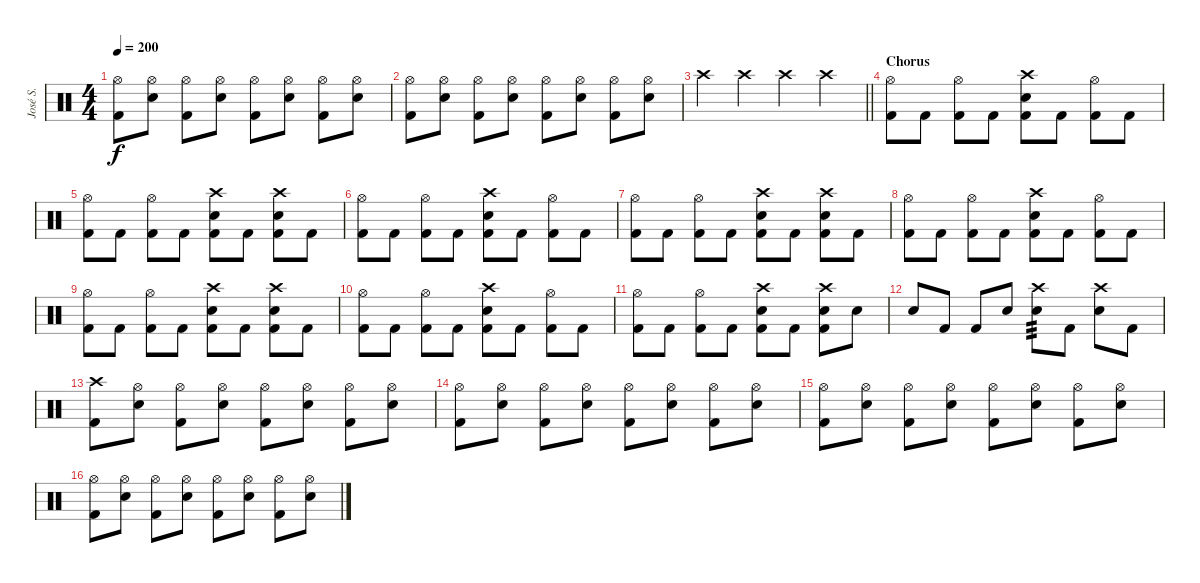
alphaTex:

\track ("José S." "José S.") {instrument percussion}
\staff {score}
\articulation defaults
\ts (4 4)
\tempo 200
\clef neutral
\ks c
("Hi-Hat (open)" "Kick (hit) 2").8{dy f} ("Hi-Hat (open)" "Electric Snare (hit)").8 ("Hi-Hat (open)" "Kick (hit) 2").8 ("Hi-Hat (open)" "Electric Snare (hit)").8 ("Hi-Hat (open)" "Kick (hit) 2").8 ("Hi-Hat (open)" "Electric Snare (hit)").8 ("Hi-Hat (open)" "Kick (hit) 2").8 ("Hi-Hat (open)" "Electric Snare (hit)").8 |
("Hi-Hat (open)" "Kick (hit) 2").8 ("Hi-Hat (open)" "Electric Snare (hit)").8 ("Hi-Hat (open)" "Kick (hit) 2").8 ("Hi-Hat (open)" "Electric Snare (hit)").8 ("Hi-Hat (open)" "Kick (hit) 2").8 ("Hi-Hat (open)" "Electric Snare (hit)").8 ("Hi-Hat (open)" "Kick (hit) 2").8 ("Hi-Hat (open)" "Electric Snare (hit)").8 |
\barLineRight lightlight "Crash high (hit)".4 "Crash high (hit)".4 "Crash high (hit)".4 "Crash high (hit)".4
|
\section ("" "Chorus")
("Hi-Hat (open)" "Kick (hit) 2").8 "Kick (hit) 2".8 ("Hi-Hat (open)" "Kick (hit) 2").8 "Kick (hit) 2".8 ("Crash high (hit)" "Electric Snare (hit)" "Kick (hit) 2").8 "Kick (hit) 2".8 ("Hi-Hat (open)" "Kick (hit) 2").8 "Kick (hit) 2".8 |
("Hi-Hat (open)" "Kick (hit) 2").8 "Kick (hit) 2".8 ("Hi-Hat (open)" "Kick (hit) 2").8 "Kick (hit) 2".8 ("Crash high (hit)" "Electric Snare (hit)" "Kick (hit) 2").8 "Kick (hit) 2".8 ("Crash high (hit)" "Electric Snare (hit)" "Kick (hit) 2").8 "Kick (hit) 2".8 |
("Hi-Hat (open)" "Kick (hit) 2").8 "Kick (hit) 2".8 ("Hi-Hat (open)" "Kick (hit) 2").8 "Kick (hit) 2".8 ("Crash high (hit)" "Electric Snare (hit)" "Kick (hit) 2").8 "Kick (hit) 2".8 ("Hi-Hat (open)" "Kick (hit) 2").8 "Kick (hit) 2".8 |
("Hi-Hat (open)" "Kick (hit) 2").8 "Kick (hit) 2".8 ("Hi-Hat (open)" "Kick (hit) 2").8 "Kick (hit) 2".8 ("Crash high (hit)" "Electric Snare (hit)" "Kick (hit) 2").8 "Kick (hit) 2".8 ("Crash high (hit)" "Electric Snare (hit)" "Kick (hit) 2").8 "Kick (hit) 2".8 |
("Hi-Hat (open)" "Kick (hit) 2").8 "Kick (hit) 2".8 ("Hi-Hat (open)" "Kick (hit) 2").8 "Kick (hit) 2".8 ("Crash high (hit)" "Electric Snare (hit)" "Kick (hit) 2").8 "Kick (hit) 2".8 ("Hi-Hat (open)" "Kick (hit) 2").8 "Kick (hit) 2".8 |
("Hi-Hat (open)" "Kick (hit) 2").8 "Kick (hit) 2".8 ("Hi-Hat (open)" "Kick (hit) 2").8 "Kick (hit) 2".8 ("Crash high (hit)" "Electric Snare (hit)" "Kick (hit) 2").8 "Kick (hit) 2".8 ("Crash high (hit)" "Electric Snare (hit)" "Kick (hit) 2").8 "Kick (hit) 2".8 |
("Hi-Hat (open)" "Kick (hit) 2").8 "Kick (hit) 2".8 ("Hi-Hat (open)" "Kick (hit) 2").8 "Kick (hit) 2".8 ("Crash high (hit)" "Electric Snare (hit)" "Kick (hit) 2").8 "Kick (hit) 2".8 ("Hi-Hat (open)" "Kick (hit) 2").8 "Kick (hit) 2".8 |
("Hi-Hat (open)" "Kick (hit) 2").8 "Kick (hit) 2".8 ("Hi-Hat (open)" "Kick (hit) 2").8 "Kick (hit) 2".8 ("Crash high (hit)" "Electric Snare (hit)" "Kick (hit) 2").8 "Kick (hit) 2".8 ("Crash high (hit)" "Electric Snare (hit)" "Kick (hit) 2").8 "Electric Snare (hit)".8 |
"Electric Snare (hit)".8 "Kick (hit) 2".8 "Kick (hit) 2".8 "Electric Snare (hit)".8 ("Crash high (hit)" "Electric Snare (hit)").8{tp 3} "Kick (hit) 2".8 ("Crash high (hit)" "Electric Snare (hit)").8 "Kick (hit) 2".8 |
("Crash high (hit)" "Kick (hit) 2").8 ("Hi-Hat (open)" "Electric Snare (hit)").8 ("Hi-Hat (open)" "Kick (hit) 2").8 ("Hi-Hat (open)" "Electric Snare (hit)").8 ("Hi-Hat (open)" "Kick (hit) 2").8 ("Hi-Hat (open)" "Electric Snare (hit)").8 ("Hi-Hat (open)" "Kick (hit) 2").8 ("Hi-Hat (open)" "Electric Snare (hit)").8 |
("Hi-Hat (open)" "Kick (hit) 2").8 ("Hi-Hat (open)" "Electric Snare (hit)").8 ("Hi-Hat (open)" "Kick (hit) 2").8 ("Hi-Hat (open)" "Electric Snare (hit)").8 ("Hi-Hat (open)" "Kick (hit) 2").8 ("Hi-Hat (open)" "Electric Snare (hit)").8 ("Hi-Hat (open)" "Kick (hit) 2").8 ("Hi-Hat (open)" "Electric Snare (hit)").8 |
("Hi-Hat (open)" "Kick (hit) 2").8 ("Hi-Hat (open)" "Electric Snare (hit)").8 ("Hi-Hat (open)" "Kick (hit) 2").8 ("Hi-Hat (open)" "Electric Snare (hit)").8 ("Hi-Hat (open)" "Kick (hit) 2").8 ("Hi-Hat (open)" "Electric Snare (hit)").8 ("Hi-Hat (open)" "Kick (hit) 2").8 ("Hi-Hat (open)" "Electric Snare (hit)").8 |
("Hi-Hat (open)" "Kick (hit) 2").8 ("Hi-Hat (open)" "Electric Snare (hit)").8 ("Hi-Hat (open)" "Kick (hit) 2").8 ("Hi-Hat (open)" "Electric Snare (hit)").8 ("Hi-Hat (open)" "Kick (hit) 2").8 ("Hi-Hat (open)" "Electric Snare (hit)").8 ("Hi-Hat (open)" "Kick (hit) 2").8 ("Hi-Hat (open)" "Electric Snare (hit)").8
